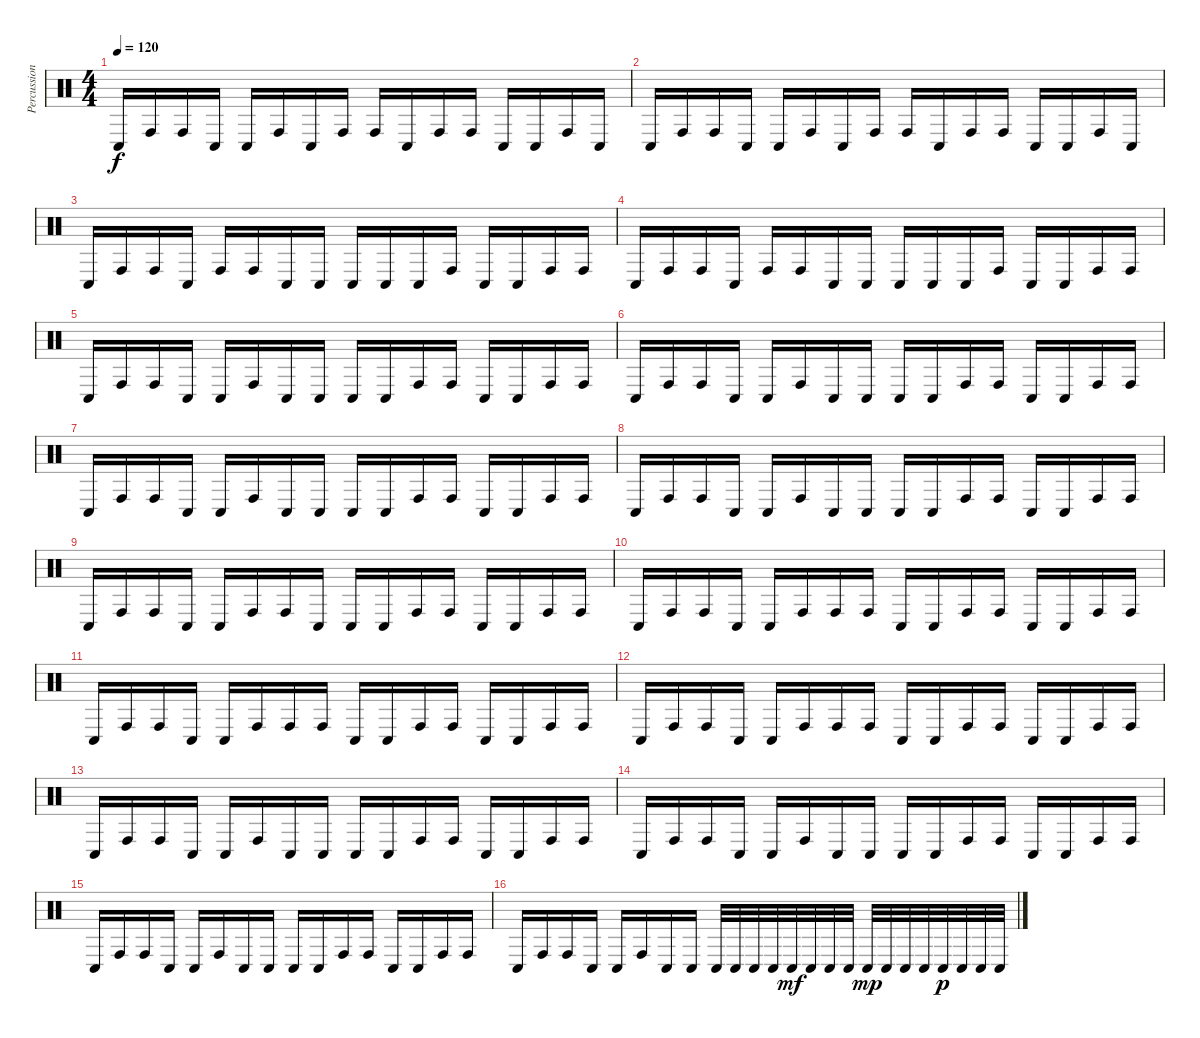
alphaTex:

\track ("Percussions" "Percussion") {instrument percussion}
\staff {score}
\articulation defaults
\ts (4 4)
\tempo 120
\clef neutral
\ks c "Conga low (hit)".16{dy f} "Conga high (hit)".16 "Conga high (hit)".16 "Conga low (hit)".16 "Conga low (hit)".16 "Conga high (hit)".16 "Conga low (hit)".16 "Conga high (hit)".16 "Conga high (hit)".16 "Conga low (hit)".16 "Conga high (hit)".16 "Conga high (hit)".16 "Conga low (hit)".16 "Conga low (hit)".16 "Conga high (hit)".16 "Conga low (hit)".16
|
"Conga low (hit)".16 "Conga high (hit)".16 "Conga high (hit)".16 "Conga low (hit)".16 "Conga low (hit)".16 "Conga high (hit)".16 "Conga low (hit)".16 "Conga high (hit)".16 "Conga high (hit)".16 "Conga low (hit)".16 "Conga high (hit)".16 "Conga high (hit)".16 "Conga low (hit)".16 "Conga low (hit)".16 "Conga high (hit)".16 "Conga low (hit)".16 |
"Conga low (hit)".16 "Conga high (hit)".16 "Conga high (hit)".16 "Conga low (hit)".16 "Conga high (hit)".16 "Conga high (hit)".16 "Conga low (hit)".16 "Conga low (hit)".16 "Conga low (hit)".16 "Conga low (hit)".16 "Conga low (hit)".16 "Conga high (hit)".16 "Conga low (hit)".16 "Conga low (hit)".16 "Conga high (hit)".16 "Conga high (hit)".16 |
"Conga low (hit)".16 "Conga high (hit)".16 "Conga high (hit)".16 "Conga low (hit)".16 "Conga high (hit)".16 "Conga high (hit)".16 "Conga low (hit)".16 "Conga low (hit)".16 "Conga low (hit)".16 "Conga low (hit)".16 "Conga low (hit)".16 "Conga high (hit)".16 "Conga low (hit)".16 "Conga low (hit)".16 "Conga high (hit)".16 "Conga high (hit)".16 |
"Conga low (hit)".16 "Conga high (hit)".16 "Conga high (hit)".16 "Conga low (hit)".16 "Conga low (hit)".16 "Conga high (hit)".16 "Conga low (hit)".16 "Conga low (hit)".16 "Conga low (hit)".16 "Conga low (hit)".16 "Conga high (hit)".16 "Conga high (hit)".16 "Conga low (hit)".16 "Conga low (hit)".16 "Conga high (hit)".16 "Conga high (hit)".16 |
"Conga low (hit)".16 "Conga high (hit)".16 "Conga high (hit)".16 "Conga low (hit)".16 "Conga low (hit)".16 "Conga high (hit)".16 "Conga low (hit)".16 "Conga low (hit)".16 "Conga low (hit)".16 "Conga low (hit)".16 "Conga high (hit)".16 "Conga high (hit)".16 "Conga low (hit)".16 "Conga low (hit)".16 "Conga high (hit)".16 "Conga high (hit)".16 |
"Conga low (hit)".16 "Conga high (hit)".16 "Conga high (hit)".16 "Conga low (hit)".16 "Conga low (hit)".16 "Conga high (hit)".16 "Conga low (hit)".16 "Conga low (hit)".16 "Conga low (hit)".16 "Conga low (hit)".16 "Conga high (hit)".16 "Conga high (hit)".16 "Conga low (hit)".16 "Conga low (hit)".16 "Conga high (hit)".16 "Conga high (hit)".16 |
"Conga low (hit)".16 "Conga high (hit)".16 "Conga high (hit)".16 "Conga low (hit)".16 "Conga low (hit)".16 "Conga high (hit)".16 "Conga low (hit)".16 "Conga low (hit)".16 "Conga low (hit)".16 "Conga low (hit)".16 "Conga high (hit)".16 "Conga high (hit)".16 "Conga low (hit)".16 "Conga low (hit)".16 "Conga high (hit)".16 "Conga high (hit)".16 |
"Conga low (hit)".16 "Conga high (hit)".16 "Conga high (hit)".16 "Conga low (hit)".16 "Conga low (hit)".16 "Conga high (hit)".16 "Conga high (hit)".16 "Conga low (hit)".16 "Conga low (hit)".16 "Conga low (hit)".16 "Conga high (hit)".16 "Conga high (hit)".16 "Conga low (hit)".16 "Conga low (hit)".16 "Conga high (hit)".16 "Conga high (hit)".16 |
"Conga low (hit)".16 "Conga high (hit)".16 "Conga high (hit)".16 "Conga low (hit)".16 "Conga low (hit)".16 "Conga high (hit)".16 "Conga high (hit)".16 "Conga high (hit)".16 "Conga low (hit)".16 "Conga low (hit)".16 "Conga high (hit)".16 "Conga high (hit)".16 "Conga low (hit)".16 "Conga low (hit)".16 "Conga high (hit)".16 "Conga high (hit)".16 |
"Conga low (hit)".16 "Conga high (hit)".16 "Conga high (hit)".16 "Conga low (hit)".16 "Conga low (hit)".16 "Conga high (hit)".16 "Conga high (hit)".16 "Conga high (hit)".16 "Conga low (hit)".16 "Conga low (hit)".16 "Conga high (hit)".16 "Conga high (hit)".16 "Conga low (hit)".16 "Conga low (hit)".16 "Conga high (hit)".16 "Conga high (hit)".16 |
"Conga low (hit)".16 "Conga high (hit)".16 "Conga high (hit)".16 "Conga low (hit)".16 "Conga low (hit)".16 "Conga high (hit)".16 "Conga high (hit)".16 "Conga high (hit)".16 "Conga low (hit)".16 "Conga low (hit)".16 "Conga high (hit)".16 "Conga high (hit)".16 "Conga low (hit)".16 "Conga low (hit)".16 "Conga high (hit)".16 "Conga high (hit)".16 |
"Conga low (hit)".16 "Conga high (hit)".16 "Conga high (hit)".16 "Conga low (hit)".16 "Conga low (hit)".16 "Conga high (hit)".16 "Conga low (hit)".16 "Conga low (hit)".16 "Conga low (hit)".16 "Conga low (hit)".16 "Conga high (hit)".16 "Conga high (hit)".16 "Conga low (hit)".16 "Conga low (hit)".16 "Conga high (hit)".16 "Conga high (hit)".16 |
"Conga low (hit)".16 "Conga high (hit)".16 "Conga high (hit)".16 "Conga low (hit)".16 "Conga low (hit)".16 "Conga high (hit)".16 "Conga low (hit)".16 "Conga low (hit)".16 "Conga low (hit)".16 "Conga low (hit)".16 "Conga high (hit)".16 "Conga high (hit)".16 "Conga low (hit)".16 "Conga low (hit)".16 "Conga high (hit)".16 "Conga high (hit)".16 |
"Conga low (hit)".16 "Conga high (hit)".16 "Conga high (hit)".16 "Conga low (hit)".16 "Conga low (hit)".16 "Conga high (hit)".16 "Conga low (hit)".16 "Conga low (hit)".16 "Conga low (hit)".16 "Conga low (hit)".16 "Conga high (hit)".16 "Conga high (hit)".16 "Conga low (hit)".16 "Conga low (hit)".16 "Conga high (hit)".16 "Conga high (hit)".16 |
"Conga low (hit)".16 "Conga high (hit)".16 "Conga high (hit)".16 "Conga low (hit)".16 "Conga low (hit)".16 "Conga high (hit)".16 "Conga low (hit)".16 "Conga low (hit)".16 "Conga low (hit)".32 "Conga low (hit)".32 "Conga low (hit)".32 "Conga low (hit)".32 "Conga low (hit)".32{dy mf} "Conga low (hit)".32 "Conga low (hit)".32 "Conga low (hit)".32 "Conga low (hit)".32{dy mp} "Conga low (hit)".32 "Conga low (hit)".32 "Conga low (hit)".32 "Conga low (hit)".32{dy p} "Conga low (hit)".32 "Conga low (hit)".32 "Conga low (hit)".32
